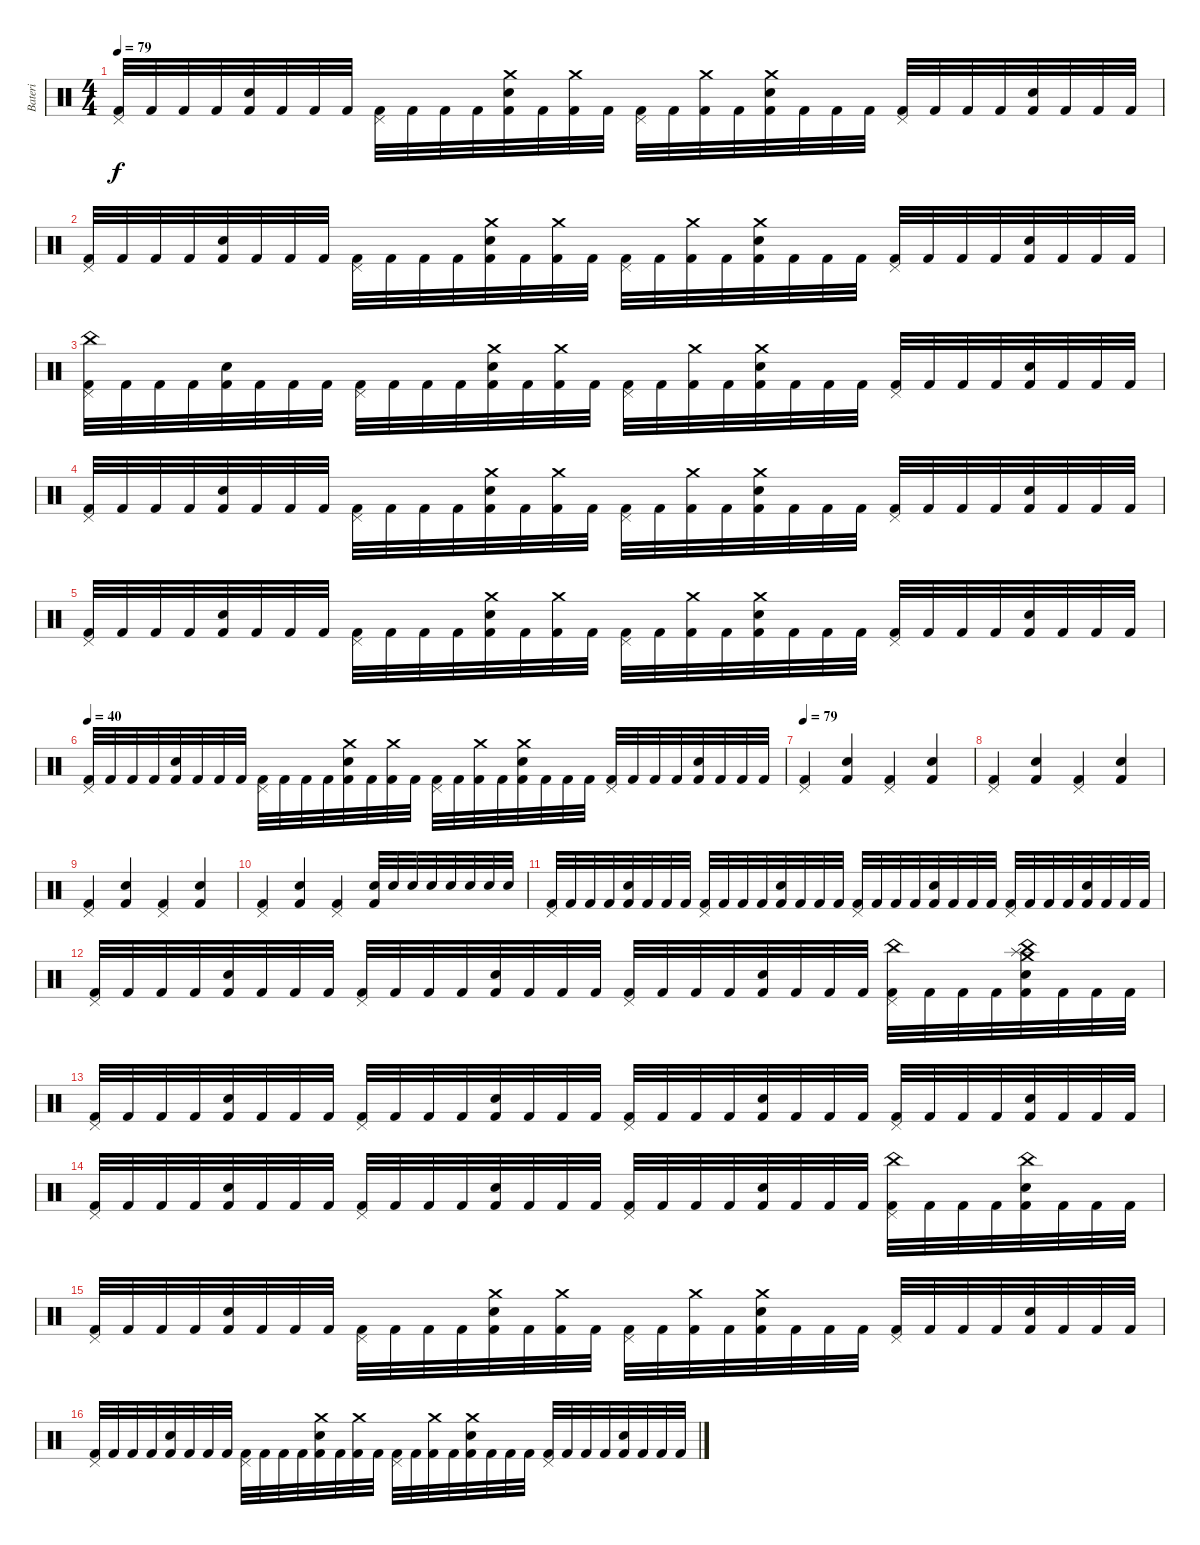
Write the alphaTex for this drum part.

\track ("Bateri" "Bateri") {instrument percussion}
\staff {score}
\articulation defaults
\ts (4 4)
\tempo 79
\clef neutral
\ks c
("Pedal Hi-Hat (hit)" "Kick (hit) 2").32{dy f} "Kick (hit) 2".32 "Kick (hit) 2".32 "Kick (hit) 2".32 ("Electric Snare (hit)" "Kick (hit) 2").32 "Kick (hit) 2".32 "Kick (hit) 2".32 "Kick (hit) 2".32 ("Pedal Hi-Hat (hit)" "Kick (hit) 2").32 "Kick (hit) 2".32 "Kick (hit) 2".32 "Kick (hit) 2".32 ("Crash medium (hit)" "Electric Snare (hit)" "Kick (hit) 2").32 "Kick (hit) 2".32 ("Crash medium (hit)" "Kick (hit) 2").32 "Kick (hit) 2".32 ("Pedal Hi-Hat (hit)" "Kick (hit) 2").32 "Kick (hit) 2".32 ("Crash medium (hit)" "Kick (hit) 2").32 "Kick (hit) 2".32 ("Crash medium (hit)" "Electric Snare (hit)" "Kick (hit) 2").32 "Kick (hit) 2".32 "Kick (hit) 2".32 "Kick (hit) 2".32 ("Pedal Hi-Hat (hit)" "Kick (hit) 2").32 "Kick (hit) 2".32 "Kick (hit) 2".32 "Kick (hit) 2".32 ("Electric Snare (hit)" "Kick (hit) 2").32 "Kick (hit) 2".32 "Kick (hit) 2".32 "Kick (hit) 2".32 |
("Pedal Hi-Hat (hit)" "Kick (hit) 2").32 "Kick (hit) 2".32 "Kick (hit) 2".32 "Kick (hit) 2".32 ("Electric Snare (hit)" "Kick (hit) 2").32 "Kick (hit) 2".32 "Kick (hit) 2".32 "Kick (hit) 2".32 ("Pedal Hi-Hat (hit)" "Kick (hit) 2").32 "Kick (hit) 2".32 "Kick (hit) 2".32 "Kick (hit) 2".32 ("Crash medium (hit)" "Electric Snare (hit)" "Kick (hit) 2").32 "Kick (hit) 2".32 ("Crash medium (hit)" "Kick (hit) 2").32 "Kick (hit) 2".32 ("Pedal Hi-Hat (hit)" "Kick (hit) 2").32 "Kick (hit) 2".32 ("Crash medium (hit)" "Kick (hit) 2").32 "Kick (hit) 2".32 ("Crash medium (hit)" "Electric Snare (hit)" "Kick (hit) 2").32 "Kick (hit) 2".32 "Kick (hit) 2".32 "Kick (hit) 2".32 ("Pedal Hi-Hat (hit)" "Kick (hit) 2").32 "Kick (hit) 2".32 "Kick (hit) 2".32 "Kick (hit) 2".32 ("Electric Snare (hit)" "Kick (hit) 2").32 "Kick (hit) 2".32 "Kick (hit) 2".32 "Kick (hit) 2".32 |
("China (hit)" "Pedal Hi-Hat (hit)" "Kick (hit) 2").32 "Kick (hit) 2".32 "Kick (hit) 2".32 "Kick (hit) 2".32 ("Electric Snare (hit)" "Kick (hit) 2").32 "Kick (hit) 2".32 "Kick (hit) 2".32 "Kick (hit) 2".32 ("Pedal Hi-Hat (hit)" "Kick (hit) 2").32 "Kick (hit) 2".32 "Kick (hit) 2".32 "Kick (hit) 2".32 ("Crash medium (hit)" "Electric Snare (hit)" "Kick (hit) 2").32 "Kick (hit) 2".32 ("Crash medium (hit)" "Kick (hit) 2").32 "Kick (hit) 2".32 ("Pedal Hi-Hat (hit)" "Kick (hit) 2").32 "Kick (hit) 2".32 ("Crash medium (hit)" "Kick (hit) 2").32 "Kick (hit) 2".32 ("Crash medium (hit)" "Electric Snare (hit)" "Kick (hit) 2").32 "Kick (hit) 2".32 "Kick (hit) 2".32 "Kick (hit) 2".32 ("Pedal Hi-Hat (hit)" "Kick (hit) 2").32 "Kick (hit) 2".32 "Kick (hit) 2".32 "Kick (hit) 2".32 ("Electric Snare (hit)" "Kick (hit) 2").32 "Kick (hit) 2".32 "Kick (hit) 2".32 "Kick (hit) 2".32 |
("Pedal Hi-Hat (hit)" "Kick (hit) 2").32 "Kick (hit) 2".32 "Kick (hit) 2".32 "Kick (hit) 2".32 ("Electric Snare (hit)" "Kick (hit) 2").32 "Kick (hit) 2".32 "Kick (hit) 2".32 "Kick (hit) 2".32 ("Pedal Hi-Hat (hit)" "Kick (hit) 2").32 "Kick (hit) 2".32 "Kick (hit) 2".32 "Kick (hit) 2".32 ("Crash medium (hit)" "Electric Snare (hit)" "Kick (hit) 2").32 "Kick (hit) 2".32 ("Crash medium (hit)" "Kick (hit) 2").32 "Kick (hit) 2".32 ("Pedal Hi-Hat (hit)" "Kick (hit) 2").32 "Kick (hit) 2".32 ("Crash medium (hit)" "Kick (hit) 2").32 "Kick (hit) 2".32 ("Crash medium (hit)" "Electric Snare (hit)" "Kick (hit) 2").32 "Kick (hit) 2".32 "Kick (hit) 2".32 "Kick (hit) 2".32 ("Pedal Hi-Hat (hit)" "Kick (hit) 2").32 "Kick (hit) 2".32 "Kick (hit) 2".32 "Kick (hit) 2".32 ("Electric Snare (hit)" "Kick (hit) 2").32 "Kick (hit) 2".32 "Kick (hit) 2".32 "Kick (hit) 2".32 |
("Pedal Hi-Hat (hit)" "Kick (hit) 2").32 "Kick (hit) 2".32 "Kick (hit) 2".32 "Kick (hit) 2".32 ("Electric Snare (hit)" "Kick (hit) 2").32 "Kick (hit) 2".32 "Kick (hit) 2".32 "Kick (hit) 2".32 ("Pedal Hi-Hat (hit)" "Kick (hit) 2").32 "Kick (hit) 2".32 "Kick (hit) 2".32 "Kick (hit) 2".32 ("Crash medium (hit)" "Electric Snare (hit)" "Kick (hit) 2").32 "Kick (hit) 2".32 ("Crash medium (hit)" "Kick (hit) 2").32 "Kick (hit) 2".32 ("Pedal Hi-Hat (hit)" "Kick (hit) 2").32 "Kick (hit) 2".32 ("Crash medium (hit)" "Kick (hit) 2").32 "Kick (hit) 2".32 ("Crash medium (hit)" "Electric Snare (hit)" "Kick (hit) 2").32 "Kick (hit) 2".32 "Kick (hit) 2".32 "Kick (hit) 2".32 ("Pedal Hi-Hat (hit)" "Kick (hit) 2").32 "Kick (hit) 2".32 "Kick (hit) 2".32 "Kick (hit) 2".32 ("Electric Snare (hit)" "Kick (hit) 2").32 "Kick (hit) 2".32 "Kick (hit) 2".32 "Kick (hit) 2".32 |
\tempo 40
("Pedal Hi-Hat (hit)" "Kick (hit) 2").32 "Kick (hit) 2".32 "Kick (hit) 2".32 "Kick (hit) 2".32 ("Electric Snare (hit)" "Kick (hit) 2").32 "Kick (hit) 2".32 "Kick (hit) 2".32 "Kick (hit) 2".32 ("Pedal Hi-Hat (hit)" "Kick (hit) 2").32 "Kick (hit) 2".32 "Kick (hit) 2".32 "Kick (hit) 2".32 ("Crash medium (hit)" "Electric Snare (hit)" "Kick (hit) 2").32 "Kick (hit) 2".32 ("Crash medium (hit)" "Kick (hit) 2").32 "Kick (hit) 2".32 ("Pedal Hi-Hat (hit)" "Kick (hit) 2").32 "Kick (hit) 2".32 ("Crash medium (hit)" "Kick (hit) 2").32 "Kick (hit) 2".32 ("Crash medium (hit)" "Electric Snare (hit)" "Kick (hit) 2").32 "Kick (hit) 2".32 "Kick (hit) 2".32 "Kick (hit) 2".32 ("Pedal Hi-Hat (hit)" "Kick (hit) 2").32 "Kick (hit) 2".32 "Kick (hit) 2".32 "Kick (hit) 2".32 ("Electric Snare (hit)" "Kick (hit) 2").32 "Kick (hit) 2".32 "Kick (hit) 2".32 "Kick (hit) 2".32 |
\tempo 79
("Pedal Hi-Hat (hit)" "Kick (hit) 2").4 ("Electric Snare (hit)" "Kick (hit) 2").4 ("Pedal Hi-Hat (hit)" "Kick (hit) 2").4 ("Electric Snare (hit)" "Kick (hit) 2").4 |
("Pedal Hi-Hat (hit)" "Kick (hit) 2").4 ("Electric Snare (hit)" "Kick (hit) 2").4 ("Pedal Hi-Hat (hit)" "Kick (hit) 2").4 ("Electric Snare (hit)" "Kick (hit) 2").4 |
("Pedal Hi-Hat (hit)" "Kick (hit) 2").4 ("Electric Snare (hit)" "Kick (hit) 2").4 ("Pedal Hi-Hat (hit)" "Kick (hit) 2").4 ("Electric Snare (hit)" "Kick (hit) 2").4 |
("Pedal Hi-Hat (hit)" "Kick (hit) 2").4 ("Electric Snare (hit)" "Kick (hit) 2").4 ("Pedal Hi-Hat (hit)" "Kick (hit) 2").4 ("Electric Snare (hit)" "Kick (hit) 2").32 "Electric Snare (hit)".32 "Electric Snare (hit)".32 "Electric Snare (hit)".32 "Electric Snare (hit)".32 "Electric Snare (hit)".32 "Electric Snare (hit)".32 "Electric Snare (hit)".32 |
("Pedal Hi-Hat (hit)" "Kick (hit) 2").32 "Kick (hit) 2".32 "Kick (hit) 2".32 "Kick (hit) 2".32 ("Electric Snare (hit)" "Kick (hit) 2").32 "Kick (hit) 2".32 "Kick (hit) 2".32 "Kick (hit) 2".32 ("Pedal Hi-Hat (hit)" "Kick (hit) 2").32 "Kick (hit) 2".32 "Kick (hit) 2".32 "Kick (hit) 2".32 ("Electric Snare (hit)" "Kick (hit) 2").32 "Kick (hit) 2".32 "Kick (hit) 2".32 "Kick (hit) 2".32 ("Pedal Hi-Hat (hit)" "Kick (hit) 2").32 "Kick (hit) 2".32 "Kick (hit) 2".32 "Kick (hit) 2".32 ("Electric Snare (hit)" "Kick (hit) 2").32 "Kick (hit) 2".32 "Kick (hit) 2".32 "Kick (hit) 2".32 ("Pedal Hi-Hat (hit)" "Kick (hit) 2").32 "Kick (hit) 2".32 "Kick (hit) 2".32 "Kick (hit) 2".32 ("Electric Snare (hit)" "Kick (hit) 2").32 "Kick (hit) 2".32 "Kick (hit) 2".32 "Kick (hit) 2".32 |
("Pedal Hi-Hat (hit)" "Kick (hit) 2").32 "Kick (hit) 2".32 "Kick (hit) 2".32 "Kick (hit) 2".32 ("Electric Snare (hit)" "Kick (hit) 2").32 "Kick (hit) 2".32 "Kick (hit) 2".32 "Kick (hit) 2".32 ("Pedal Hi-Hat (hit)" "Kick (hit) 2").32 "Kick (hit) 2".32 "Kick (hit) 2".32 "Kick (hit) 2".32 ("Electric Snare (hit)" "Kick (hit) 2").32 "Kick (hit) 2".32 "Kick (hit) 2".32 "Kick (hit) 2".32 ("Pedal Hi-Hat (hit)" "Kick (hit) 2").32 "Kick (hit) 2".32 "Kick (hit) 2".32 "Kick (hit) 2".32 ("Electric Snare (hit)" "Kick (hit) 2").32 "Kick (hit) 2".32 "Kick (hit) 2".32 "Kick (hit) 2".32 ("China (hit)" "Pedal Hi-Hat (hit)" "Kick (hit) 2").32 "Kick (hit) 2".32 "Kick (hit) 2".32 "Kick (hit) 2".32 ("China (hit)" "Electric Snare (hit)" "Crash medium (hit)" "Splash (hit)" "Kick (hit) 2").32 "Kick (hit) 2".32 "Kick (hit) 2".32 "Kick (hit) 2".32 |
("Pedal Hi-Hat (hit)" "Kick (hit) 2").32 "Kick (hit) 2".32 "Kick (hit) 2".32 "Kick (hit) 2".32 ("Electric Snare (hit)" "Kick (hit) 2").32 "Kick (hit) 2".32 "Kick (hit) 2".32 "Kick (hit) 2".32 ("Pedal Hi-Hat (hit)" "Kick (hit) 2").32 "Kick (hit) 2".32 "Kick (hit) 2".32 "Kick (hit) 2".32 ("Electric Snare (hit)" "Kick (hit) 2").32 "Kick (hit) 2".32 "Kick (hit) 2".32 "Kick (hit) 2".32 ("Pedal Hi-Hat (hit)" "Kick (hit) 2").32 "Kick (hit) 2".32 "Kick (hit) 2".32 "Kick (hit) 2".32 ("Electric Snare (hit)" "Kick (hit) 2").32 "Kick (hit) 2".32 "Kick (hit) 2".32 "Kick (hit) 2".32 ("Pedal Hi-Hat (hit)" "Kick (hit) 2").32 "Kick (hit) 2".32 "Kick (hit) 2".32 "Kick (hit) 2".32 ("Electric Snare (hit)" "Kick (hit) 2").32 "Kick (hit) 2".32 "Kick (hit) 2".32 "Kick (hit) 2".32 |
("Pedal Hi-Hat (hit)" "Kick (hit) 2").32 "Kick (hit) 2".32 "Kick (hit) 2".32 "Kick (hit) 2".32 ("Electric Snare (hit)" "Kick (hit) 2").32 "Kick (hit) 2".32 "Kick (hit) 2".32 "Kick (hit) 2".32 ("Pedal Hi-Hat (hit)" "Kick (hit) 2").32 "Kick (hit) 2".32 "Kick (hit) 2".32 "Kick (hit) 2".32 ("Electric Snare (hit)" "Kick (hit) 2").32 "Kick (hit) 2".32 "Kick (hit) 2".32 "Kick (hit) 2".32 ("Pedal Hi-Hat (hit)" "Kick (hit) 2").32 "Kick (hit) 2".32 "Kick (hit) 2".32 "Kick (hit) 2".32 ("Electric Snare (hit)" "Kick (hit) 2").32 "Kick (hit) 2".32 "Kick (hit) 2".32 "Kick (hit) 2".32 ("China (hit)" "Pedal Hi-Hat (hit)" "Kick (hit) 2").32 "Kick (hit) 2".32 "Kick (hit) 2".32 "Kick (hit) 2".32 ("China (hit)" "Electric Snare (hit)" "Kick (hit) 2").32 "Kick (hit) 2".32 "Kick (hit) 2".32 "Kick (hit) 2".32 |
("Pedal Hi-Hat (hit)" "Kick (hit) 2").32 "Kick (hit) 2".32 "Kick (hit) 2".32 "Kick (hit) 2".32 ("Electric Snare (hit)" "Kick (hit) 2").32 "Kick (hit) 2".32 "Kick (hit) 2".32 "Kick (hit) 2".32 ("Pedal Hi-Hat (hit)" "Kick (hit) 2").32 "Kick (hit) 2".32 "Kick (hit) 2".32 "Kick (hit) 2".32 ("Crash medium (hit)" "Electric Snare (hit)" "Kick (hit) 2").32 "Kick (hit) 2".32 ("Crash medium (hit)" "Kick (hit) 2").32 "Kick (hit) 2".32 ("Pedal Hi-Hat (hit)" "Kick (hit) 2").32 "Kick (hit) 2".32 ("Crash medium (hit)" "Kick (hit) 2").32 "Kick (hit) 2".32 ("Crash medium (hit)" "Electric Snare (hit)" "Kick (hit) 2").32 "Kick (hit) 2".32 "Kick (hit) 2".32 "Kick (hit) 2".32 ("Pedal Hi-Hat (hit)" "Kick (hit) 2").32 "Kick (hit) 2".32 "Kick (hit) 2".32 "Kick (hit) 2".32 ("Electric Snare (hit)" "Kick (hit) 2").32 "Kick (hit) 2".32 "Kick (hit) 2".32 "Kick (hit) 2".32 |
("Pedal Hi-Hat (hit)" "Kick (hit) 2").32 "Kick (hit) 2".32 "Kick (hit) 2".32 "Kick (hit) 2".32 ("Electric Snare (hit)" "Kick (hit) 2").32 "Kick (hit) 2".32 "Kick (hit) 2".32 "Kick (hit) 2".32 ("Pedal Hi-Hat (hit)" "Kick (hit) 2").32 "Kick (hit) 2".32 "Kick (hit) 2".32 "Kick (hit) 2".32 ("Crash medium (hit)" "Electric Snare (hit)" "Kick (hit) 2").32 "Kick (hit) 2".32 ("Crash medium (hit)" "Kick (hit) 2").32 "Kick (hit) 2".32 ("Pedal Hi-Hat (hit)" "Kick (hit) 2").32 "Kick (hit) 2".32 ("Crash medium (hit)" "Kick (hit) 2").32 "Kick (hit) 2".32 ("Crash medium (hit)" "Electric Snare (hit)" "Kick (hit) 2").32 "Kick (hit) 2".32 "Kick (hit) 2".32 "Kick (hit) 2".32 ("Pedal Hi-Hat (hit)" "Kick (hit) 2").32 "Kick (hit) 2".32 "Kick (hit) 2".32 "Kick (hit) 2".32 ("Electric Snare (hit)" "Kick (hit) 2").32 "Kick (hit) 2".32 "Kick (hit) 2".32 "Kick (hit) 2".32
